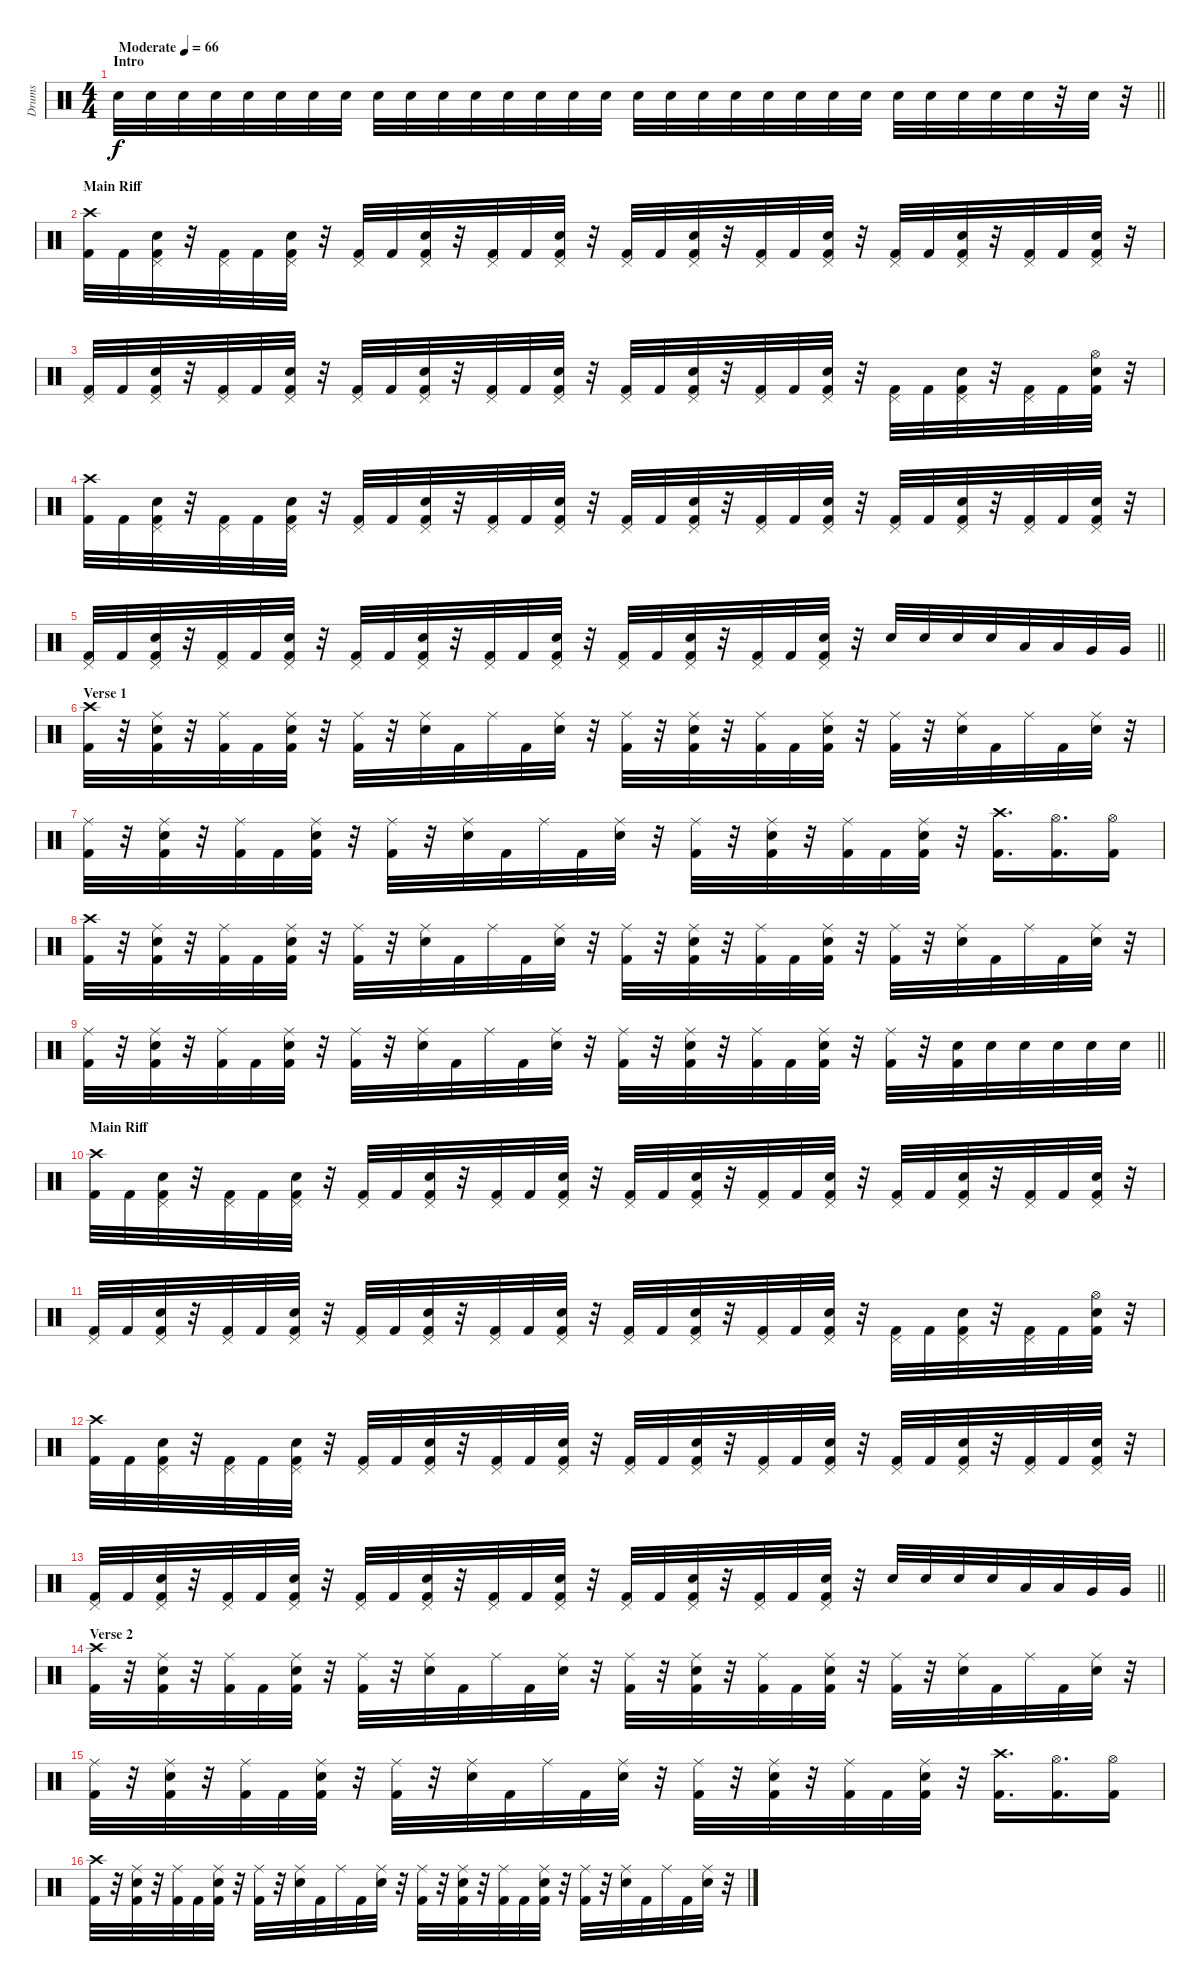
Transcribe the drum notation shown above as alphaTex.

\track ("Drums" "Drums") {instrument percussion}
\staff {score}
\articulation defaults
\ts (4 4)
\section ("" "Intro")
\tempo (66 "Moderate")
\clef neutral
\barLineRight lightlight
\ks c "Snare (hit) 2".32{dy f} "Snare (hit) 2".32 "Snare (hit) 2".32 "Snare (hit) 2".32 "Snare (hit) 2".32 "Snare (hit) 2".32 "Snare (hit) 2".32 "Snare (hit) 2".32 "Snare (hit) 2".32 "Snare (hit) 2".32 "Snare (hit) 2".32 "Snare (hit) 2".32 "Snare (hit) 2".32 "Snare (hit) 2".32 "Snare (hit) 2".32 "Snare (hit) 2".32 "Snare (hit) 2".32 "Snare (hit) 2".32 "Snare (hit) 2".32 "Snare (hit) 2".32 "Snare (hit) 2".32 "Snare (hit) 2".32 "Snare (hit) 2".32 "Snare (hit) 2".32 "Snare (hit) 2".32 "Snare (hit) 2".32 "Snare (hit) 2".32 "Snare (hit) 2".32 "Snare (hit) 2".32
r.32 "Snare (hit) 2".32 r.32 |
\section ("" "Main Riff")
("Crash high (hit)" "Kick (hit) 2").32 "Kick (hit) 2".32 ("Pedal Hi-Hat (hit)" "Snare (hit) 2" "Kick (hit) 2").32 r.32 ("Pedal Hi-Hat (hit)" "Kick (hit) 2").32 "Kick (hit) 2".32 ("Pedal Hi-Hat (hit)" "Snare (hit) 2" "Kick (hit) 2").32 r.32 ("Pedal Hi-Hat (hit)" "Kick (hit) 2").32 "Kick (hit) 2".32 ("Pedal Hi-Hat (hit)" "Snare (hit) 2" "Kick (hit) 2").32 r.32 ("Pedal Hi-Hat (hit)" "Kick (hit) 2").32 "Kick (hit) 2".32 ("Pedal Hi-Hat (hit)" "Snare (hit) 2" "Kick (hit) 2").32 r.32 ("Pedal Hi-Hat (hit)" "Kick (hit) 2").32 "Kick (hit) 2".32 ("Pedal Hi-Hat (hit)" "Snare (hit) 2" "Kick (hit) 2").32 r.32 ("Pedal Hi-Hat (hit)" "Kick (hit) 2").32 "Kick (hit) 2".32 ("Pedal Hi-Hat (hit)" "Snare (hit) 2" "Kick (hit) 2").32 r.32 ("Pedal Hi-Hat (hit)" "Kick (hit) 2").32 "Kick (hit) 2".32 ("Pedal Hi-Hat (hit)" "Snare (hit) 2" "Kick (hit) 2").32 r.32 ("Pedal Hi-Hat (hit)" "Kick (hit) 2").32 "Kick (hit) 2".32 ("Pedal Hi-Hat (hit)" "Snare (hit) 2" "Kick (hit) 2").32 r.32 |
("Pedal Hi-Hat (hit)" "Kick (hit) 2").32 "Kick (hit) 2".32 ("Pedal Hi-Hat (hit)" "Snare (hit) 2" "Kick (hit) 2").32 r.32 ("Pedal Hi-Hat (hit)" "Kick (hit) 2").32 "Kick (hit) 2".32 ("Pedal Hi-Hat (hit)" "Snare (hit) 2" "Kick (hit) 2").32 r.32 ("Pedal Hi-Hat (hit)" "Kick (hit) 2").32 "Kick (hit) 2".32 ("Pedal Hi-Hat (hit)" "Snare (hit) 2" "Kick (hit) 2").32 r.32 ("Pedal Hi-Hat (hit)" "Kick (hit) 2").32 "Kick (hit) 2".32 ("Pedal Hi-Hat (hit)" "Snare (hit) 2" "Kick (hit) 2").32 r.32 ("Pedal Hi-Hat (hit)" "Kick (hit) 2").32 "Kick (hit) 2".32 ("Pedal Hi-Hat (hit)" "Snare (hit) 2" "Kick (hit) 2").32 r.32 ("Pedal Hi-Hat (hit)" "Kick (hit) 2").32 "Kick (hit) 2".32 ("Pedal Hi-Hat (hit)" "Snare (hit) 2" "Kick (hit) 2").32 r.32 ("Pedal Hi-Hat (hit)" "Kick (hit) 2").32 "Kick (hit) 2".32 ("Pedal Hi-Hat (hit)" "Snare (hit) 2" "Kick (hit) 2").32 r.32 ("Pedal Hi-Hat (hit)" "Kick (hit) 2").32 "Kick (hit) 2".32 ("Hi-Hat (open)" "Snare (hit) 2" "Kick (hit) 2").32 r.32 |
("Crash high (hit)" "Kick (hit) 2").32 "Kick (hit) 2".32 ("Pedal Hi-Hat (hit)" "Snare (hit) 2" "Kick (hit) 2").32 r.32 ("Pedal Hi-Hat (hit)" "Kick (hit) 2").32 "Kick (hit) 2".32 ("Pedal Hi-Hat (hit)" "Snare (hit) 2" "Kick (hit) 2").32 r.32 ("Pedal Hi-Hat (hit)" "Kick (hit) 2").32 "Kick (hit) 2".32 ("Pedal Hi-Hat (hit)" "Snare (hit) 2" "Kick (hit) 2").32 r.32 ("Pedal Hi-Hat (hit)" "Kick (hit) 2").32 "Kick (hit) 2".32 ("Pedal Hi-Hat (hit)" "Snare (hit) 2" "Kick (hit) 2").32 r.32 ("Pedal Hi-Hat (hit)" "Kick (hit) 2").32 "Kick (hit) 2".32 ("Pedal Hi-Hat (hit)" "Snare (hit) 2" "Kick (hit) 2").32 r.32 ("Pedal Hi-Hat (hit)" "Kick (hit) 2").32 "Kick (hit) 2".32 ("Pedal Hi-Hat (hit)" "Snare (hit) 2" "Kick (hit) 2").32 r.32 ("Pedal Hi-Hat (hit)" "Kick (hit) 2").32 "Kick (hit) 2".32 ("Pedal Hi-Hat (hit)" "Snare (hit) 2" "Kick (hit) 2").32 r.32 ("Pedal Hi-Hat (hit)" "Kick (hit) 2").32 "Kick (hit) 2".32 ("Pedal Hi-Hat (hit)" "Snare (hit) 2" "Kick (hit) 2").32 r.32 |
\barLineRight lightlight
("Pedal Hi-Hat (hit)" "Kick (hit) 2").32 "Kick (hit) 2".32 ("Pedal Hi-Hat (hit)" "Snare (hit) 2" "Kick (hit) 2").32 r.32 ("Pedal Hi-Hat (hit)" "Kick (hit) 2").32 "Kick (hit) 2".32 ("Pedal Hi-Hat (hit)" "Snare (hit) 2" "Kick (hit) 2").32 r.32 ("Pedal Hi-Hat (hit)" "Kick (hit) 2").32 "Kick (hit) 2".32 ("Pedal Hi-Hat (hit)" "Snare (hit) 2" "Kick (hit) 2").32 r.32 ("Pedal Hi-Hat (hit)" "Kick (hit) 2").32 "Kick (hit) 2".32 ("Pedal Hi-Hat (hit)" "Snare (hit) 2" "Kick (hit) 2").32 r.32 ("Pedal Hi-Hat (hit)" "Kick (hit) 2").32 "Kick (hit) 2".32 ("Pedal Hi-Hat (hit)" "Snare (hit) 2" "Kick (hit) 2").32 r.32 ("Pedal Hi-Hat (hit)" "Kick (hit) 2").32 "Kick (hit) 2".32 ("Pedal Hi-Hat (hit)" "Snare (hit) 2" "Kick (hit) 2").32 r.32 "Snare (hit) 2".32 "Snare (hit) 2".32 "Snare (hit) 2".32 "Snare (hit) 2".32 "Low Tom (hit)".32 "Low Tom (hit)".32 "Very Low Tom (hit)".32 "Very Low Tom (hit)".32 |
\section ("" "Verse 1")
("Crash high (hit)" "Kick (hit) 2").32 r.32 ("Ride (middle)" "Snare (hit) 2" "Kick (hit) 2").32 r.32 ("Ride (middle)" "Kick (hit) 2").32 "Kick (hit) 2".32 ("Ride (middle)" "Snare (hit) 2" "Kick (hit) 2").32 r.32 ("Ride (middle)" "Kick (hit) 2").32 r.32 ("Ride (middle)" "Snare (hit) 2").32 "Kick (hit) 2".32 "Ride (middle)".32 "Kick (hit) 2".32 ("Ride (middle)" "Snare (hit) 2").32 r.32 ("Ride (middle)" "Kick (hit) 2").32 r.32 ("Ride (middle)" "Snare (hit) 2" "Kick (hit) 2").32 r.32 ("Ride (middle)" "Kick (hit) 2").32 "Kick (hit) 2".32 ("Ride (middle)" "Snare (hit) 2" "Kick (hit) 2").32 r.32 ("Ride (middle)" "Kick (hit) 2").32 r.32 ("Ride (middle)" "Snare (hit) 2").32 "Kick (hit) 2".32 "Ride (middle)".32 "Kick (hit) 2".32 ("Ride (middle)" "Snare (hit) 2").32 r.32 |
("Ride (middle)" "Kick (hit) 2").32 r.32 ("Ride (middle)" "Snare (hit) 2" "Kick (hit) 2").32 r.32 ("Ride (middle)" "Kick (hit) 2").32 "Kick (hit) 2".32 ("Ride (middle)" "Snare (hit) 2" "Kick (hit) 2").32 r.32 ("Ride (middle)" "Kick (hit) 2").32 r.32 ("Ride (middle)" "Snare (hit) 2").32 "Kick (hit) 2".32 "Ride (middle)".32 "Kick (hit) 2".32 ("Ride (middle)" "Snare (hit) 2").32 r.32 ("Ride (middle)" "Kick (hit) 2").32 r.32 ("Ride (middle)" "Snare (hit) 2" "Kick (hit) 2").32 r.32 ("Ride (middle)" "Kick (hit) 2").32 "Kick (hit) 2".32 ("Ride (middle)" "Snare (hit) 2" "Kick (hit) 2").32 r.32 ("Crash high (hit)" "Kick (hit) 2").16{d} ("Hi-Hat (open)" "Kick (hit) 2").16{d} ("Hi-Hat (open)" "Kick (hit) 2").16 |
("Crash high (hit)" "Kick (hit) 2").32 r.32 ("Ride (middle)" "Snare (hit) 2" "Kick (hit) 2").32 r.32 ("Ride (middle)" "Kick (hit) 2").32 "Kick (hit) 2".32 ("Ride (middle)" "Snare (hit) 2" "Kick (hit) 2").32 r.32 ("Ride (middle)" "Kick (hit) 2").32 r.32 ("Ride (middle)" "Snare (hit) 2").32 "Kick (hit) 2".32 "Ride (middle)".32 "Kick (hit) 2".32 ("Ride (middle)" "Snare (hit) 2").32 r.32 ("Ride (middle)" "Kick (hit) 2").32 r.32 ("Ride (middle)" "Snare (hit) 2" "Kick (hit) 2").32 r.32 ("Ride (middle)" "Kick (hit) 2").32 "Kick (hit) 2".32 ("Ride (middle)" "Snare (hit) 2" "Kick (hit) 2").32 r.32 ("Ride (middle)" "Kick (hit) 2").32 r.32 ("Ride (middle)" "Snare (hit) 2").32 "Kick (hit) 2".32 "Ride (middle)".32 "Kick (hit) 2".32 ("Ride (middle)" "Snare (hit) 2").32 r.32 |
\barLineRight lightlight
("Ride (middle)" "Kick (hit) 2").32 r.32 ("Ride (middle)" "Snare (hit) 2" "Kick (hit) 2").32 r.32 ("Ride (middle)" "Kick (hit) 2").32 "Kick (hit) 2".32 ("Ride (middle)" "Snare (hit) 2" "Kick (hit) 2").32 r.32 ("Ride (middle)" "Kick (hit) 2").32 r.32 ("Ride (middle)" "Snare (hit) 2").32 "Kick (hit) 2".32 "Ride (middle)".32 "Kick (hit) 2".32 ("Ride (middle)" "Snare (hit) 2").32 r.32 ("Ride (middle)" "Kick (hit) 2").32 r.32 ("Ride (middle)" "Snare (hit) 2" "Kick (hit) 2").32 r.32 ("Ride (middle)" "Kick (hit) 2").32 "Kick (hit) 2".32 ("Ride (middle)" "Snare (hit) 2" "Kick (hit) 2").32 r.32 ("Ride (middle)" "Kick (hit) 2").32 r.32 ("Snare (hit) 2" "Kick (hit) 2").32 "Snare (hit) 2".32 "Snare (hit) 2".32 "Snare (hit) 2".32 "Snare (hit) 2".32 "Snare (hit) 2".32 |
\section ("" "Main Riff")
("Crash high (hit)" "Kick (hit) 2").32 "Kick (hit) 2".32 ("Pedal Hi-Hat (hit)" "Snare (hit) 2" "Kick (hit) 2").32 r.32 ("Pedal Hi-Hat (hit)" "Kick (hit) 2").32 "Kick (hit) 2".32 ("Pedal Hi-Hat (hit)" "Snare (hit) 2" "Kick (hit) 2").32 r.32 ("Pedal Hi-Hat (hit)" "Kick (hit) 2").32 "Kick (hit) 2".32 ("Pedal Hi-Hat (hit)" "Snare (hit) 2" "Kick (hit) 2").32 r.32 ("Pedal Hi-Hat (hit)" "Kick (hit) 2").32 "Kick (hit) 2".32 ("Pedal Hi-Hat (hit)" "Snare (hit) 2" "Kick (hit) 2").32 r.32 ("Pedal Hi-Hat (hit)" "Kick (hit) 2").32 "Kick (hit) 2".32 ("Pedal Hi-Hat (hit)" "Snare (hit) 2" "Kick (hit) 2").32 r.32 ("Pedal Hi-Hat (hit)" "Kick (hit) 2").32 "Kick (hit) 2".32 ("Pedal Hi-Hat (hit)" "Snare (hit) 2" "Kick (hit) 2").32 r.32 ("Pedal Hi-Hat (hit)" "Kick (hit) 2").32 "Kick (hit) 2".32 ("Pedal Hi-Hat (hit)" "Snare (hit) 2" "Kick (hit) 2").32 r.32 ("Pedal Hi-Hat (hit)" "Kick (hit) 2").32 "Kick (hit) 2".32 ("Pedal Hi-Hat (hit)" "Snare (hit) 2" "Kick (hit) 2").32 r.32 |
("Pedal Hi-Hat (hit)" "Kick (hit) 2").32 "Kick (hit) 2".32 ("Pedal Hi-Hat (hit)" "Snare (hit) 2" "Kick (hit) 2").32 r.32 ("Pedal Hi-Hat (hit)" "Kick (hit) 2").32 "Kick (hit) 2".32 ("Pedal Hi-Hat (hit)" "Snare (hit) 2" "Kick (hit) 2").32 r.32 ("Pedal Hi-Hat (hit)" "Kick (hit) 2").32 "Kick (hit) 2".32 ("Pedal Hi-Hat (hit)" "Snare (hit) 2" "Kick (hit) 2").32 r.32 ("Pedal Hi-Hat (hit)" "Kick (hit) 2").32 "Kick (hit) 2".32 ("Pedal Hi-Hat (hit)" "Snare (hit) 2" "Kick (hit) 2").32 r.32 ("Pedal Hi-Hat (hit)" "Kick (hit) 2").32 "Kick (hit) 2".32 ("Pedal Hi-Hat (hit)" "Snare (hit) 2" "Kick (hit) 2").32 r.32 ("Pedal Hi-Hat (hit)" "Kick (hit) 2").32 "Kick (hit) 2".32 ("Pedal Hi-Hat (hit)" "Snare (hit) 2" "Kick (hit) 2").32 r.32 ("Pedal Hi-Hat (hit)" "Kick (hit) 2").32 "Kick (hit) 2".32 ("Pedal Hi-Hat (hit)" "Snare (hit) 2" "Kick (hit) 2").32 r.32 ("Pedal Hi-Hat (hit)" "Kick (hit) 2").32 "Kick (hit) 2".32 ("Hi-Hat (open)" "Snare (hit) 2" "Kick (hit) 2").32 r.32 |
("Crash high (hit)" "Kick (hit) 2").32 "Kick (hit) 2".32 ("Pedal Hi-Hat (hit)" "Snare (hit) 2" "Kick (hit) 2").32 r.32 ("Pedal Hi-Hat (hit)" "Kick (hit) 2").32 "Kick (hit) 2".32 ("Pedal Hi-Hat (hit)" "Snare (hit) 2" "Kick (hit) 2").32 r.32 ("Pedal Hi-Hat (hit)" "Kick (hit) 2").32 "Kick (hit) 2".32 ("Pedal Hi-Hat (hit)" "Snare (hit) 2" "Kick (hit) 2").32 r.32 ("Pedal Hi-Hat (hit)" "Kick (hit) 2").32 "Kick (hit) 2".32 ("Pedal Hi-Hat (hit)" "Snare (hit) 2" "Kick (hit) 2").32 r.32 ("Pedal Hi-Hat (hit)" "Kick (hit) 2").32 "Kick (hit) 2".32 ("Pedal Hi-Hat (hit)" "Snare (hit) 2" "Kick (hit) 2").32 r.32 ("Pedal Hi-Hat (hit)" "Kick (hit) 2").32 "Kick (hit) 2".32 ("Pedal Hi-Hat (hit)" "Snare (hit) 2" "Kick (hit) 2").32 r.32 ("Pedal Hi-Hat (hit)" "Kick (hit) 2").32 "Kick (hit) 2".32 ("Pedal Hi-Hat (hit)" "Snare (hit) 2" "Kick (hit) 2").32 r.32 ("Pedal Hi-Hat (hit)" "Kick (hit) 2").32 "Kick (hit) 2".32 ("Pedal Hi-Hat (hit)" "Snare (hit) 2" "Kick (hit) 2").32 r.32 |
\barLineRight lightlight
("Pedal Hi-Hat (hit)" "Kick (hit) 2").32 "Kick (hit) 2".32 ("Pedal Hi-Hat (hit)" "Snare (hit) 2" "Kick (hit) 2").32 r.32 ("Pedal Hi-Hat (hit)" "Kick (hit) 2").32 "Kick (hit) 2".32 ("Pedal Hi-Hat (hit)" "Snare (hit) 2" "Kick (hit) 2").32 r.32 ("Pedal Hi-Hat (hit)" "Kick (hit) 2").32 "Kick (hit) 2".32 ("Pedal Hi-Hat (hit)" "Snare (hit) 2" "Kick (hit) 2").32 r.32 ("Pedal Hi-Hat (hit)" "Kick (hit) 2").32 "Kick (hit) 2".32 ("Pedal Hi-Hat (hit)" "Snare (hit) 2" "Kick (hit) 2").32 r.32 ("Pedal Hi-Hat (hit)" "Kick (hit) 2").32 "Kick (hit) 2".32 ("Pedal Hi-Hat (hit)" "Snare (hit) 2" "Kick (hit) 2").32 r.32 ("Pedal Hi-Hat (hit)" "Kick (hit) 2").32 "Kick (hit) 2".32 ("Pedal Hi-Hat (hit)" "Snare (hit) 2" "Kick (hit) 2").32 r.32 "Snare (hit) 2".32 "Snare (hit) 2".32 "Snare (hit) 2".32 "Snare (hit) 2".32 "Low Tom (hit)".32 "Low Tom (hit)".32 "Very Low Tom (hit)".32 "Very Low Tom (hit)".32 |
\section ("" "Verse 2")
("Crash high (hit)" "Kick (hit) 2").32 r.32 ("Ride (middle)" "Snare (hit) 2" "Kick (hit) 2").32 r.32 ("Ride (middle)" "Kick (hit) 2").32 "Kick (hit) 2".32 ("Ride (middle)" "Snare (hit) 2" "Kick (hit) 2").32 r.32 ("Ride (middle)" "Kick (hit) 2").32 r.32 ("Ride (middle)" "Snare (hit) 2").32 "Kick (hit) 2".32 "Ride (middle)".32 "Kick (hit) 2".32 ("Ride (middle)" "Snare (hit) 2").32 r.32 ("Ride (middle)" "Kick (hit) 2").32 r.32 ("Ride (middle)" "Snare (hit) 2" "Kick (hit) 2").32 r.32 ("Ride (middle)" "Kick (hit) 2").32 "Kick (hit) 2".32 ("Ride (middle)" "Snare (hit) 2" "Kick (hit) 2").32 r.32 ("Ride (middle)" "Kick (hit) 2").32 r.32 ("Ride (middle)" "Snare (hit) 2").32 "Kick (hit) 2".32 "Ride (middle)".32 "Kick (hit) 2".32 ("Ride (middle)" "Snare (hit) 2").32 r.32 |
("Ride (middle)" "Kick (hit) 2").32 r.32 ("Ride (middle)" "Snare (hit) 2" "Kick (hit) 2").32 r.32 ("Ride (middle)" "Kick (hit) 2").32 "Kick (hit) 2".32 ("Ride (middle)" "Snare (hit) 2" "Kick (hit) 2").32 r.32 ("Ride (middle)" "Kick (hit) 2").32 r.32 ("Ride (middle)" "Snare (hit) 2").32 "Kick (hit) 2".32 "Ride (middle)".32 "Kick (hit) 2".32 ("Ride (middle)" "Snare (hit) 2").32 r.32 ("Ride (middle)" "Kick (hit) 2").32 r.32 ("Ride (middle)" "Snare (hit) 2" "Kick (hit) 2").32 r.32 ("Ride (middle)" "Kick (hit) 2").32 "Kick (hit) 2".32 ("Ride (middle)" "Snare (hit) 2" "Kick (hit) 2").32 r.32 ("Crash high (hit)" "Kick (hit) 2").16{d} ("Hi-Hat (open)" "Kick (hit) 2").16{d} ("Hi-Hat (open)" "Kick (hit) 2").16 |
("Crash high (hit)" "Kick (hit) 2").32 r.32 ("Ride (middle)" "Snare (hit) 2" "Kick (hit) 2").32 r.32 ("Ride (middle)" "Kick (hit) 2").32 "Kick (hit) 2".32 ("Ride (middle)" "Snare (hit) 2" "Kick (hit) 2").32 r.32 ("Ride (middle)" "Kick (hit) 2").32 r.32 ("Ride (middle)" "Snare (hit) 2").32 "Kick (hit) 2".32 "Ride (middle)".32 "Kick (hit) 2".32 ("Ride (middle)" "Snare (hit) 2").32 r.32 ("Ride (middle)" "Kick (hit) 2").32 r.32 ("Ride (middle)" "Snare (hit) 2" "Kick (hit) 2").32 r.32 ("Ride (middle)" "Kick (hit) 2").32 "Kick (hit) 2".32 ("Ride (middle)" "Snare (hit) 2" "Kick (hit) 2").32 r.32 ("Ride (middle)" "Kick (hit) 2").32 r.32 ("Ride (middle)" "Snare (hit) 2").32 "Kick (hit) 2".32 "Ride (middle)".32 "Kick (hit) 2".32 ("Ride (middle)" "Snare (hit) 2").32 r.32
